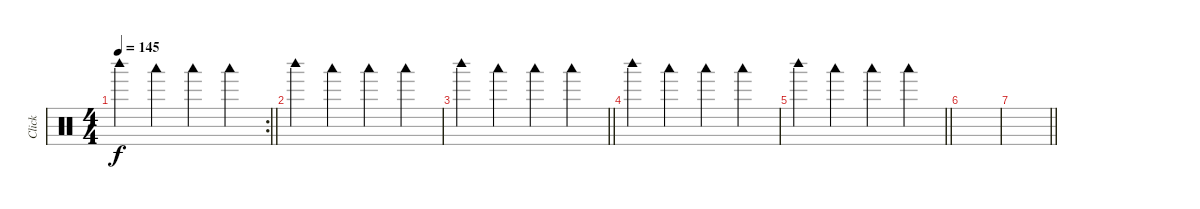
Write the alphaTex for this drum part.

\track ("Click" "Click") {mute instrument percussion}
\staff {score}
\articulation defaults
\rc 2
\ts (4 4)
\tempo 145
\clef neutral
\barLineRight lightlight
\ks c "Woodblock high (hit)".4{dy f} "Woodblock low (hit)".4 "Woodblock low (hit)".4 "Woodblock low (hit)".4
|
"Woodblock high (hit)".4 "Woodblock low (hit)".4 "Woodblock low (hit)".4 "Woodblock low (hit)".4 |
\barLineRight lightlight "Woodblock high (hit)".4 "Woodblock low (hit)".4 "Woodblock low (hit)".4 "Woodblock low (hit)".4
|
"Woodblock high (hit)".4 "Woodblock low (hit)".4 "Woodblock low (hit)".4 "Woodblock low (hit)".4 |
\barLineRight lightlight "Woodblock high (hit)".4 "Woodblock low (hit)".4 "Woodblock low (hit)".4 "Woodblock low (hit)".4
|
|
\barLineRight lightlight
